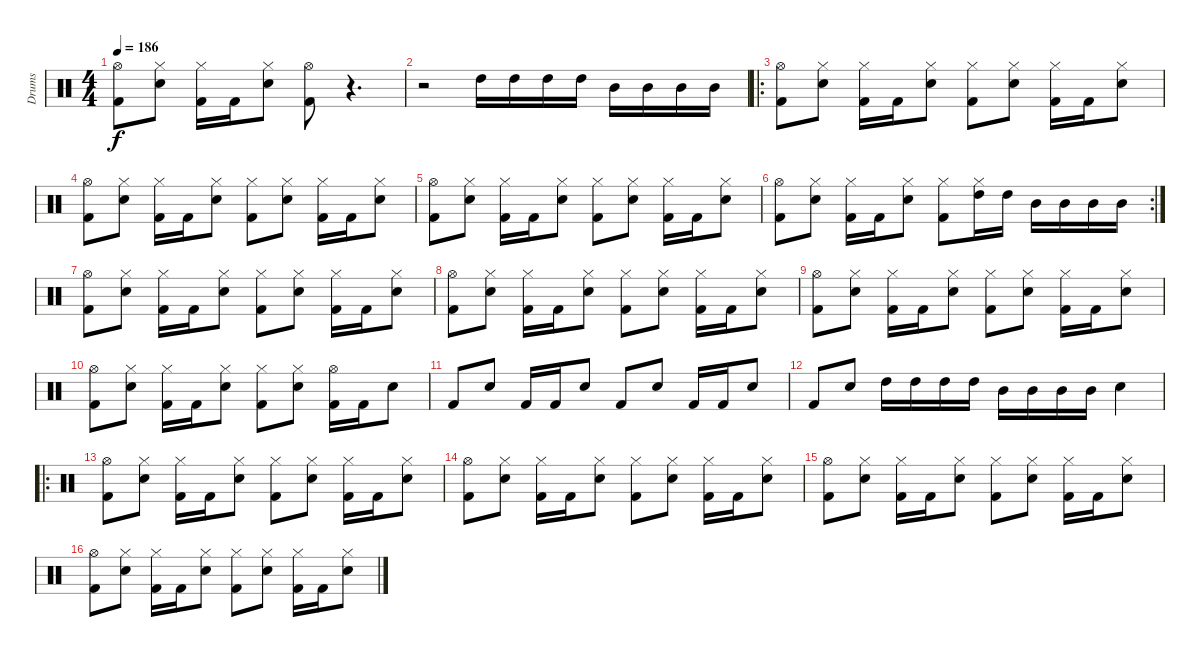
\track ("Drums" "Drums") {instrument percussion}
\staff {score}
\articulation defaults
\ts (4 4)
\tempo 186
\clef neutral
\ks c
("Hi-Hat (open)" "Kick (hit) 2").8{dy f} ("Hi-Hat (closed)" "Electric Snare (hit)").8 ("Hi-Hat (closed)" "Kick (hit) 2").16 "Kick (hit) 2".16 ("Hi-Hat (closed)" "Electric Snare (hit)").8 ("Hi-Hat (open)" "Kick (hit) 2").8 r.4{d} |
r.2 "High Tom (hit)".16 "High Tom (hit)".16 "High Tom (hit)".16 "High Tom (hit)".16 "Mid Tom (hit)".16 "Mid Tom (hit)".16 "Mid Tom (hit)".16 "Mid Tom (hit)".16 |
\ro
("Hi-Hat (open)" "Kick (hit) 2").8 ("Hi-Hat (closed)" "Electric Snare (hit)").8 ("Hi-Hat (closed)" "Kick (hit) 2").16 "Kick (hit) 2".16 ("Hi-Hat (closed)" "Electric Snare (hit)").8 ("Hi-Hat (closed)" "Kick (hit) 2").8 ("Hi-Hat (closed)" "Electric Snare (hit)").8 ("Hi-Hat (closed)" "Kick (hit) 2").16 "Kick (hit) 2".16 ("Hi-Hat (closed)" "Electric Snare (hit)").8 |
("Hi-Hat (open)" "Kick (hit) 2").8 ("Hi-Hat (closed)" "Electric Snare (hit)").8 ("Hi-Hat (closed)" "Kick (hit) 2").16 "Kick (hit) 2".16 ("Hi-Hat (closed)" "Electric Snare (hit)").8 ("Hi-Hat (closed)" "Kick (hit) 2").8 ("Hi-Hat (closed)" "Electric Snare (hit)").8 ("Hi-Hat (closed)" "Kick (hit) 2").16 "Kick (hit) 2".16 ("Hi-Hat (closed)" "Electric Snare (hit)").8 |
("Hi-Hat (open)" "Kick (hit) 2").8 ("Hi-Hat (closed)" "Electric Snare (hit)").8 ("Hi-Hat (closed)" "Kick (hit) 2").16 "Kick (hit) 2".16 ("Hi-Hat (closed)" "Electric Snare (hit)").8 ("Hi-Hat (closed)" "Kick (hit) 2").8 ("Hi-Hat (closed)" "Electric Snare (hit)").8 ("Hi-Hat (closed)" "Kick (hit) 2").16 "Kick (hit) 2".16 ("Hi-Hat (closed)" "Electric Snare (hit)").8 |
\rc 2
("Hi-Hat (open)" "Kick (hit) 2").8 ("Hi-Hat (closed)" "Electric Snare (hit)").8 ("Hi-Hat (closed)" "Kick (hit) 2").16 "Kick (hit) 2".16 ("Hi-Hat (closed)" "Electric Snare (hit)").8 ("Hi-Hat (closed)" "Kick (hit) 2").8 ("Hi-Hat (closed)" "High Tom (hit)").16 "High Tom (hit)".16 "Mid Tom (hit)".16 "Mid Tom (hit)".16 "Mid Tom (hit)".16 "Mid Tom (hit)".16 |
("Hi-Hat (open)" "Kick (hit) 2").8 ("Hi-Hat (closed)" "Electric Snare (hit)").8 ("Hi-Hat (closed)" "Kick (hit) 2").16 "Kick (hit) 2".16 ("Hi-Hat (closed)" "Electric Snare (hit)").8 ("Hi-Hat (closed)" "Kick (hit) 2").8 ("Hi-Hat (closed)" "Electric Snare (hit)").8 ("Hi-Hat (closed)" "Kick (hit) 2").16 "Kick (hit) 2".16 ("Hi-Hat (closed)" "Electric Snare (hit)").8 |
("Hi-Hat (open)" "Kick (hit) 2").8 ("Hi-Hat (closed)" "Electric Snare (hit)").8 ("Hi-Hat (closed)" "Kick (hit) 2").16 "Kick (hit) 2".16 ("Hi-Hat (closed)" "Electric Snare (hit)").8 ("Hi-Hat (closed)" "Kick (hit) 2").8 ("Hi-Hat (closed)" "Electric Snare (hit)").8 ("Hi-Hat (closed)" "Kick (hit) 2").16 "Kick (hit) 2".16 ("Hi-Hat (closed)" "Electric Snare (hit)").8 |
("Hi-Hat (open)" "Kick (hit) 2").8 ("Hi-Hat (closed)" "Electric Snare (hit)").8 ("Hi-Hat (closed)" "Kick (hit) 2").16 "Kick (hit) 2".16 ("Hi-Hat (closed)" "Electric Snare (hit)").8 ("Hi-Hat (closed)" "Kick (hit) 2").8 ("Hi-Hat (closed)" "Electric Snare (hit)").8 ("Hi-Hat (closed)" "Kick (hit) 2").16 "Kick (hit) 2".16 ("Hi-Hat (closed)" "Electric Snare (hit)").8 |
("Hi-Hat (open)" "Kick (hit) 2").8 ("Hi-Hat (closed)" "Electric Snare (hit)").8 ("Hi-Hat (closed)" "Kick (hit) 2").16 "Kick (hit) 2".16 ("Hi-Hat (closed)" "Electric Snare (hit)").8 ("Hi-Hat (closed)" "Kick (hit) 2").8 ("Hi-Hat (closed)" "Electric Snare (hit)").8 ("Hi-Hat (open)" "Kick (hit) 2").16 "Kick (hit) 2".16 "Electric Snare (hit)".8 |
"Kick (hit) 2".8 "Electric Snare (hit)".8 "Kick (hit) 2".16 "Kick (hit) 2".16 "Electric Snare (hit)".8 "Kick (hit) 2".8 "Electric Snare (hit)".8 "Kick (hit) 2".16 "Kick (hit) 2".16 "Electric Snare (hit)".8 |
"Kick (hit) 2".8 "Electric Snare (hit)".8 "High Tom (hit)".16 "High Tom (hit)".16 "High Tom (hit)".16 "High Tom (hit)".16 "Mid Tom (hit)".16 "Mid Tom (hit)".16 "Mid Tom (hit)".16 "Mid Tom (hit)".16 "Electric Snare (hit)".4 |
\ro
("Hi-Hat (open)" "Kick (hit) 2").8 ("Hi-Hat (closed)" "Electric Snare (hit)").8 ("Hi-Hat (closed)" "Kick (hit) 2").16 "Kick (hit) 2".16 ("Hi-Hat (closed)" "Electric Snare (hit)").8 ("Hi-Hat (closed)" "Kick (hit) 2").8 ("Hi-Hat (closed)" "Electric Snare (hit)").8 ("Hi-Hat (closed)" "Kick (hit) 2").16 "Kick (hit) 2".16 ("Hi-Hat (closed)" "Electric Snare (hit)").8 |
("Hi-Hat (open)" "Kick (hit) 2").8 ("Hi-Hat (closed)" "Electric Snare (hit)").8 ("Hi-Hat (closed)" "Kick (hit) 2").16 "Kick (hit) 2".16 ("Hi-Hat (closed)" "Electric Snare (hit)").8 ("Hi-Hat (closed)" "Kick (hit) 2").8 ("Hi-Hat (closed)" "Electric Snare (hit)").8 ("Hi-Hat (closed)" "Kick (hit) 2").16 "Kick (hit) 2".16 ("Hi-Hat (closed)" "Electric Snare (hit)").8 |
("Hi-Hat (open)" "Kick (hit) 2").8 ("Hi-Hat (closed)" "Electric Snare (hit)").8 ("Hi-Hat (closed)" "Kick (hit) 2").16 "Kick (hit) 2".16 ("Hi-Hat (closed)" "Electric Snare (hit)").8 ("Hi-Hat (closed)" "Kick (hit) 2").8 ("Hi-Hat (closed)" "Electric Snare (hit)").8 ("Hi-Hat (closed)" "Kick (hit) 2").16 "Kick (hit) 2".16 ("Hi-Hat (closed)" "Electric Snare (hit)").8 |
("Hi-Hat (open)" "Kick (hit) 2").8 ("Hi-Hat (closed)" "Electric Snare (hit)").8 ("Hi-Hat (closed)" "Kick (hit) 2").16 "Kick (hit) 2".16 ("Hi-Hat (closed)" "Electric Snare (hit)").8 ("Hi-Hat (closed)" "Kick (hit) 2").8 ("Hi-Hat (closed)" "Electric Snare (hit)").8 ("Hi-Hat (closed)" "Kick (hit) 2").16 "Kick (hit) 2".16 ("Hi-Hat (closed)" "Electric Snare (hit)").8
